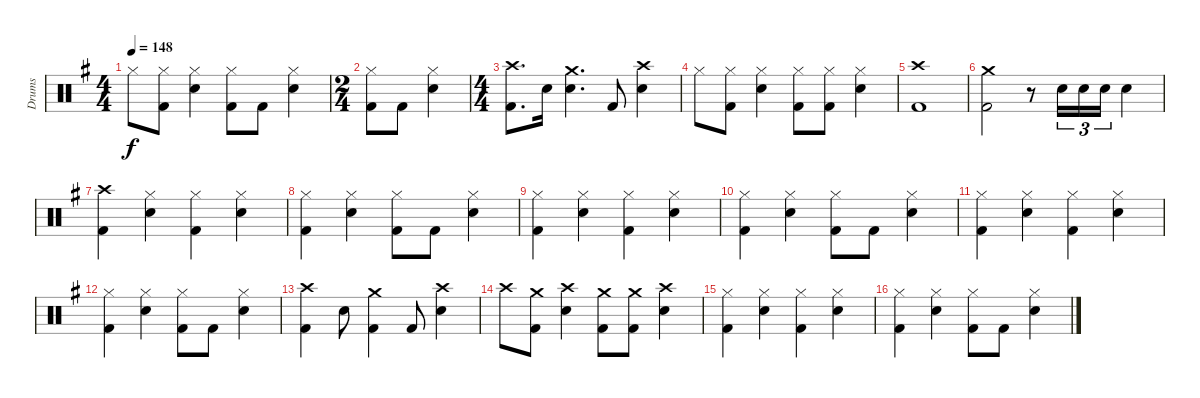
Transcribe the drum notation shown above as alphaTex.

\track ("Drums" "Drums") {instrument percussion}
\staff {score}
\articulation defaults
\ts (4 4)
\tempo 148
\clef neutral
\ks eminor "Hi-Hat (closed)".8{dy f}
("Kick (hit) 2" "Hi-Hat (closed)").8 ("Snare (hit) 2" "Hi-Hat (closed)").4 ("Kick (hit) 2" "Hi-Hat (closed)").8 "Kick (hit) 2".8 ("Snare (hit) 2" "Hi-Hat (closed)").4 |
\ts (2 4)
("Kick (hit) 2" "Hi-Hat (closed)").8 "Kick (hit) 2".8 ("Snare (hit) 2" "Hi-Hat (closed)").4 |
\ts (4 4)
("Kick (hit) 2" "Crash high (hit)").8{d} "Snare (hit) 2".16 ("Snare (hit) 2" "Crash medium (hit)").4{d} "Kick (hit) 2".8 ("Snare (hit) 2" "Crash high (hit)").4 |
"Hi-Hat (closed)".8 ("Kick (hit) 2" "Hi-Hat (closed)").8 ("Snare (hit) 2" "Hi-Hat (closed)").4 ("Kick (hit) 2" "Hi-Hat (closed)").8 ("Kick (hit) 2" "Hi-Hat (closed)").8 ("Snare (hit) 2" "Hi-Hat (closed)").4 |
("Kick (hit) 2" "Crash high (hit)").1 |
("Kick (hit) 2" "Crash medium (hit)").2 r.8 "Snare (hit) 2".16{tu (3 2)} "Snare (hit) 2".16{tu (3 2)} "Snare (hit) 2".16{tu (3 2)} "Snare (hit) 2".4 |
("Kick (hit) 2" "Crash high (hit)").4 ("Snare (hit) 2" "Hi-Hat (closed)").4 ("Kick (hit) 2" "Hi-Hat (closed)").4 ("Snare (hit) 2" "Hi-Hat (closed)").4 |
("Kick (hit) 2" "Hi-Hat (closed)").4 ("Snare (hit) 2" "Hi-Hat (closed)").4 ("Kick (hit) 2" "Hi-Hat (closed)").8 "Kick (hit) 2".8 ("Snare (hit) 2" "Hi-Hat (closed)").4 |
("Kick (hit) 2" "Hi-Hat (closed)").4 ("Snare (hit) 2" "Hi-Hat (closed)").4 ("Kick (hit) 2" "Hi-Hat (closed)").4 ("Snare (hit) 2" "Hi-Hat (closed)").4 |
("Kick (hit) 2" "Hi-Hat (closed)").4 ("Snare (hit) 2" "Hi-Hat (closed)").4 ("Kick (hit) 2" "Hi-Hat (closed)").8 "Kick (hit) 2".8 ("Snare (hit) 2" "Hi-Hat (closed)").4 |
("Kick (hit) 2" "Hi-Hat (closed)").4 ("Snare (hit) 2" "Hi-Hat (closed)").4 ("Kick (hit) 2" "Hi-Hat (closed)").4 ("Snare (hit) 2" "Hi-Hat (closed)").4 |
("Kick (hit) 2" "Hi-Hat (closed)").4 ("Snare (hit) 2" "Hi-Hat (closed)").4 ("Kick (hit) 2" "Hi-Hat (closed)").8 "Kick (hit) 2".8 ("Snare (hit) 2" "Hi-Hat (closed)").4 |
("Kick (hit) 2" "Crash high (hit)").4 "Snare (hit) 2".8 ("Kick (hit) 2" "Crash medium (hit)").4 "Kick (hit) 2".8 ("Snare (hit) 2" "Crash high (hit)").4 |
"Crash high (hit)".8 ("Kick (hit) 2" "Crash medium (hit)").8 ("Snare (hit) 2" "Crash high (hit)").4 ("Kick (hit) 2" "Crash medium (hit)").8 ("Kick (hit) 2" "Crash medium (hit)").8 ("Snare (hit) 2" "Crash high (hit)").4 |
("Kick (hit) 2" "Hi-Hat (closed)").4 ("Snare (hit) 2" "Hi-Hat (closed)").4 ("Kick (hit) 2" "Hi-Hat (closed)").4 ("Snare (hit) 2" "Hi-Hat (closed)").4 |
("Kick (hit) 2" "Hi-Hat (closed)").4 ("Snare (hit) 2" "Hi-Hat (closed)").4 ("Kick (hit) 2" "Hi-Hat (closed)").8 "Kick (hit) 2".8 ("Snare (hit) 2" "Hi-Hat (closed)").4
